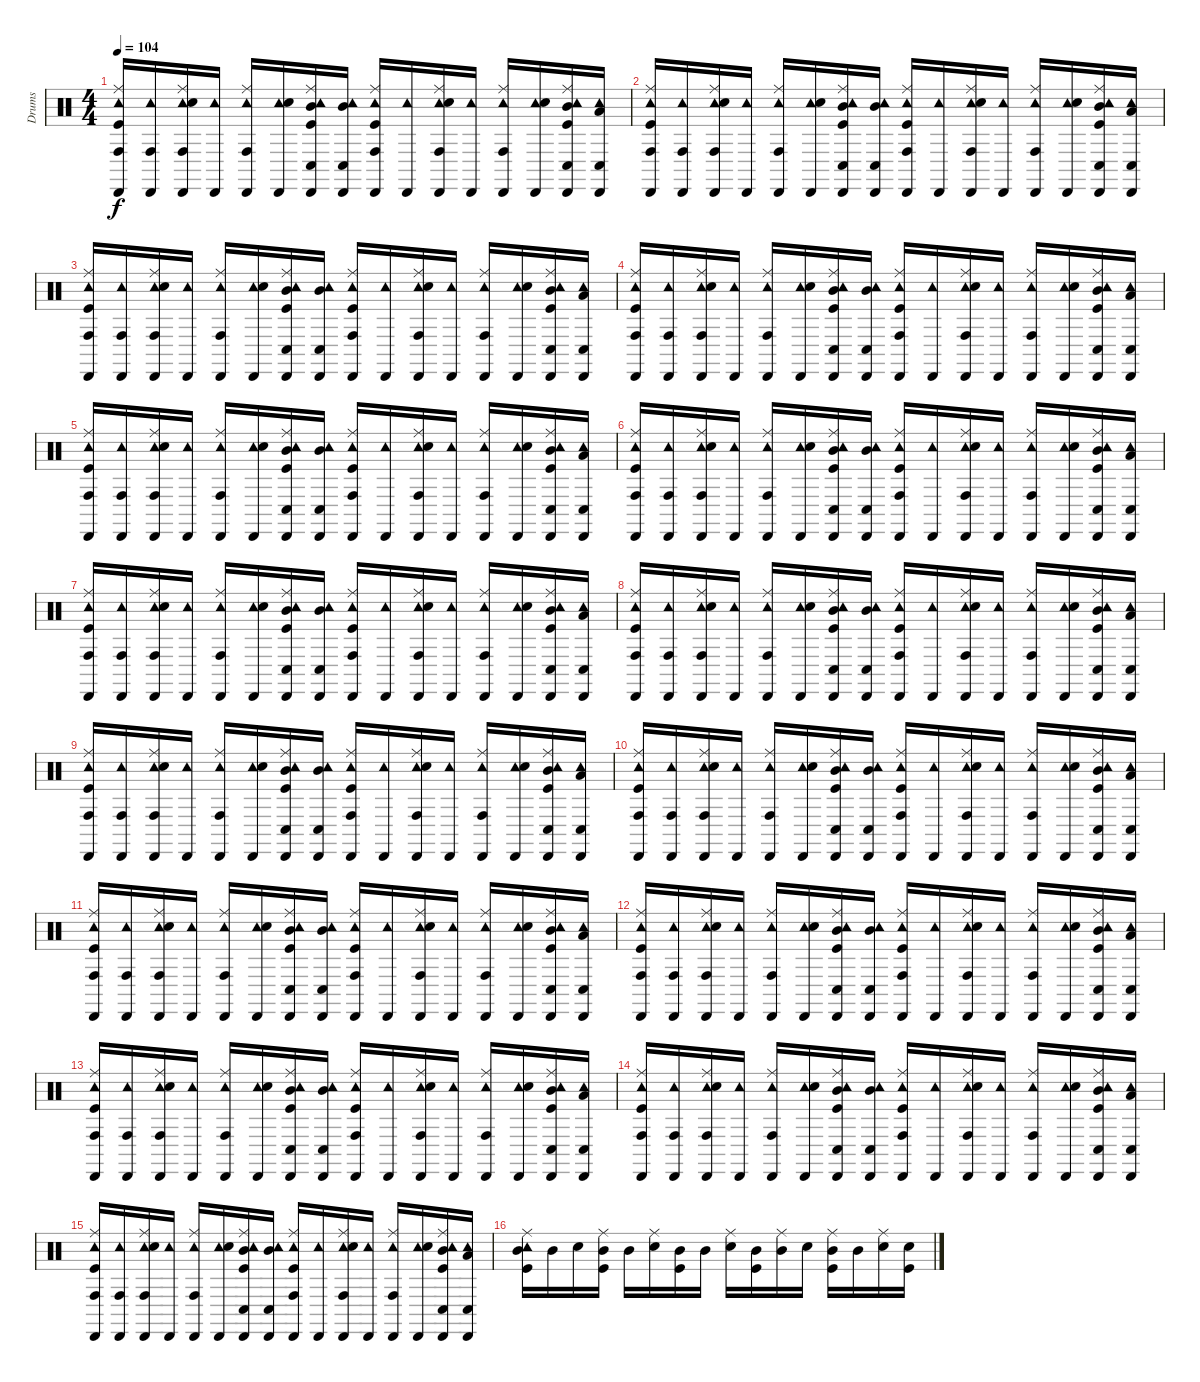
\track ("Drums" "Drums") {instrument percussion}
\staff {score}
\articulation defaults
\ts (4 4)
\tempo 104
\clef neutral
\ks c
("Cabasa (hit)" "Conga high (hit)" "Tambourine (hit)" "Ride (middle)" "Kick (hit)").16{dy f} ("Cabasa (hit)" "Conga high (hit)" "Tambourine (hit)").16 ("Cabasa (hit)" "Conga high (hit)" "Tambourine (hit)" "Ride (middle)" "Electric Snare (hit)").16 ("Cabasa (hit)" "Tambourine (hit)").16 ("Cabasa (hit)" "Conga high (hit)" "Tambourine (hit)" "Ride (middle)").16 ("Cabasa (hit)" "Tambourine (hit)" "Electric Snare (hit)").16 ("Cabasa (hit)" "Conga low (hit)" "Tambourine (hit)" "Ride (middle)" "Mid Tom (hit)" "Kick (hit)").16 ("Cabasa (hit)" "Conga low (hit)" "Tambourine (hit)" "Mid Tom (hit)").16 ("Cabasa (hit)" "Conga high (hit)" "Tambourine (hit)" "Ride (middle)" "Kick (hit)").16 ("Cabasa (hit)" "Tambourine (hit)").16 ("Cabasa (hit)" "Conga high (hit)" "Tambourine (hit)" "Ride (middle)" "Electric Snare (hit)").16 ("Cabasa (hit)" "Tambourine (hit)").16 ("Cabasa (hit)" "Conga high (hit)" "Tambourine (hit)" "Ride (middle)").16 ("Cabasa (hit)" "Tambourine (hit)" "Electric Snare (hit)").16 ("Cabasa (hit)" "Conga low (hit)" "Tambourine (hit)" "Ride (middle)" "Mid Tom (hit)" "Kick (hit)").16 ("Cabasa (hit)" "Conga low (hit)" "Tambourine (hit)" "Low Tom (hit)").16 |
("Cabasa (hit)" "Conga high (hit)" "Tambourine (hit)" "Ride (middle)" "Kick (hit)").16 ("Cabasa (hit)" "Conga high (hit)" "Tambourine (hit)").16 ("Cabasa (hit)" "Conga high (hit)" "Tambourine (hit)" "Ride (middle)" "Electric Snare (hit)").16 ("Cabasa (hit)" "Tambourine (hit)").16 ("Cabasa (hit)" "Conga high (hit)" "Tambourine (hit)" "Ride (middle)").16 ("Cabasa (hit)" "Tambourine (hit)" "Electric Snare (hit)").16 ("Cabasa (hit)" "Conga low (hit)" "Tambourine (hit)" "Ride (middle)" "Mid Tom (hit)" "Kick (hit)").16 ("Cabasa (hit)" "Conga low (hit)" "Tambourine (hit)" "Mid Tom (hit)").16 ("Cabasa (hit)" "Conga high (hit)" "Tambourine (hit)" "Ride (middle)" "Kick (hit)").16 ("Cabasa (hit)" "Tambourine (hit)").16 ("Cabasa (hit)" "Conga high (hit)" "Tambourine (hit)" "Ride (middle)" "Electric Snare (hit)").16 ("Cabasa (hit)" "Tambourine (hit)").16 ("Cabasa (hit)" "Conga high (hit)" "Tambourine (hit)" "Ride (middle)").16 ("Cabasa (hit)" "Tambourine (hit)" "Electric Snare (hit)").16 ("Cabasa (hit)" "Conga low (hit)" "Tambourine (hit)" "Ride (middle)" "Mid Tom (hit)" "Kick (hit)").16 ("Cabasa (hit)" "Conga low (hit)" "Tambourine (hit)" "Low Tom (hit)").16 |
("Cabasa (hit)" "Conga high (hit)" "Tambourine (hit)" "Ride (middle)" "Kick (hit)").16 ("Cabasa (hit)" "Conga high (hit)" "Tambourine (hit)").16 ("Cabasa (hit)" "Conga high (hit)" "Tambourine (hit)" "Ride (middle)" "Electric Snare (hit)").16 ("Cabasa (hit)" "Tambourine (hit)").16 ("Cabasa (hit)" "Conga high (hit)" "Tambourine (hit)" "Ride (middle)").16 ("Cabasa (hit)" "Tambourine (hit)" "Electric Snare (hit)").16 ("Cabasa (hit)" "Conga low (hit)" "Tambourine (hit)" "Ride (middle)" "Mid Tom (hit)" "Kick (hit)").16 ("Cabasa (hit)" "Conga low (hit)" "Tambourine (hit)" "Mid Tom (hit)").16 ("Cabasa (hit)" "Conga high (hit)" "Tambourine (hit)" "Ride (middle)" "Kick (hit)").16 ("Cabasa (hit)" "Tambourine (hit)").16 ("Cabasa (hit)" "Conga high (hit)" "Tambourine (hit)" "Ride (middle)" "Electric Snare (hit)").16 ("Cabasa (hit)" "Tambourine (hit)").16 ("Cabasa (hit)" "Conga high (hit)" "Tambourine (hit)" "Ride (middle)").16 ("Cabasa (hit)" "Tambourine (hit)" "Electric Snare (hit)").16 ("Cabasa (hit)" "Conga low (hit)" "Tambourine (hit)" "Ride (middle)" "Mid Tom (hit)" "Kick (hit)").16 ("Cabasa (hit)" "Conga low (hit)" "Tambourine (hit)" "Low Tom (hit)").16 |
("Cabasa (hit)" "Conga high (hit)" "Tambourine (hit)" "Ride (middle)" "Kick (hit)").16 ("Cabasa (hit)" "Conga high (hit)" "Tambourine (hit)").16 ("Cabasa (hit)" "Conga high (hit)" "Tambourine (hit)" "Ride (middle)" "Electric Snare (hit)").16 ("Cabasa (hit)" "Tambourine (hit)").16 ("Cabasa (hit)" "Conga high (hit)" "Tambourine (hit)" "Ride (middle)").16 ("Cabasa (hit)" "Tambourine (hit)" "Electric Snare (hit)").16 ("Cabasa (hit)" "Conga low (hit)" "Tambourine (hit)" "Ride (middle)" "Mid Tom (hit)" "Kick (hit)").16 ("Cabasa (hit)" "Conga low (hit)" "Tambourine (hit)" "Mid Tom (hit)").16 ("Cabasa (hit)" "Conga high (hit)" "Tambourine (hit)" "Ride (middle)" "Kick (hit)").16 ("Cabasa (hit)" "Tambourine (hit)").16 ("Cabasa (hit)" "Conga high (hit)" "Tambourine (hit)" "Ride (middle)" "Electric Snare (hit)").16 ("Cabasa (hit)" "Tambourine (hit)").16 ("Cabasa (hit)" "Conga high (hit)" "Tambourine (hit)" "Ride (middle)").16 ("Cabasa (hit)" "Tambourine (hit)" "Electric Snare (hit)").16 ("Cabasa (hit)" "Conga low (hit)" "Tambourine (hit)" "Ride (middle)" "Mid Tom (hit)" "Kick (hit)").16 ("Cabasa (hit)" "Conga low (hit)" "Tambourine (hit)" "Low Tom (hit)").16 |
("Cabasa (hit)" "Conga high (hit)" "Tambourine (hit)" "Ride (middle)" "Kick (hit)").16 ("Cabasa (hit)" "Conga high (hit)" "Tambourine (hit)").16 ("Cabasa (hit)" "Conga high (hit)" "Tambourine (hit)" "Ride (middle)" "Electric Snare (hit)").16 ("Cabasa (hit)" "Tambourine (hit)").16 ("Cabasa (hit)" "Conga high (hit)" "Tambourine (hit)" "Ride (middle)").16 ("Cabasa (hit)" "Tambourine (hit)" "Electric Snare (hit)").16 ("Cabasa (hit)" "Conga low (hit)" "Tambourine (hit)" "Ride (middle)" "Mid Tom (hit)" "Kick (hit)").16 ("Cabasa (hit)" "Conga low (hit)" "Tambourine (hit)" "Mid Tom (hit)").16 ("Cabasa (hit)" "Conga high (hit)" "Tambourine (hit)" "Ride (middle)" "Kick (hit)").16 ("Cabasa (hit)" "Tambourine (hit)").16 ("Cabasa (hit)" "Conga high (hit)" "Tambourine (hit)" "Ride (middle)" "Electric Snare (hit)").16 ("Cabasa (hit)" "Tambourine (hit)").16 ("Cabasa (hit)" "Conga high (hit)" "Tambourine (hit)" "Ride (middle)").16 ("Cabasa (hit)" "Tambourine (hit)" "Electric Snare (hit)").16 ("Cabasa (hit)" "Conga low (hit)" "Tambourine (hit)" "Ride (middle)" "Mid Tom (hit)" "Kick (hit)").16 ("Cabasa (hit)" "Conga low (hit)" "Tambourine (hit)" "Low Tom (hit)").16 |
("Cabasa (hit)" "Conga high (hit)" "Tambourine (hit)" "Ride (middle)" "Kick (hit)").16 ("Cabasa (hit)" "Conga high (hit)" "Tambourine (hit)").16 ("Cabasa (hit)" "Conga high (hit)" "Tambourine (hit)" "Ride (middle)" "Electric Snare (hit)").16 ("Cabasa (hit)" "Tambourine (hit)").16 ("Cabasa (hit)" "Conga high (hit)" "Tambourine (hit)" "Ride (middle)").16 ("Cabasa (hit)" "Tambourine (hit)" "Electric Snare (hit)").16 ("Cabasa (hit)" "Conga low (hit)" "Tambourine (hit)" "Ride (middle)" "Mid Tom (hit)" "Kick (hit)").16 ("Cabasa (hit)" "Conga low (hit)" "Tambourine (hit)" "Mid Tom (hit)").16 ("Cabasa (hit)" "Conga high (hit)" "Tambourine (hit)" "Ride (middle)" "Kick (hit)").16 ("Cabasa (hit)" "Tambourine (hit)").16 ("Cabasa (hit)" "Conga high (hit)" "Tambourine (hit)" "Ride (middle)" "Electric Snare (hit)").16 ("Cabasa (hit)" "Tambourine (hit)").16 ("Cabasa (hit)" "Conga high (hit)" "Tambourine (hit)" "Ride (middle)").16 ("Cabasa (hit)" "Tambourine (hit)" "Electric Snare (hit)").16 ("Cabasa (hit)" "Conga low (hit)" "Tambourine (hit)" "Ride (middle)" "Mid Tom (hit)" "Kick (hit)").16 ("Cabasa (hit)" "Conga low (hit)" "Tambourine (hit)" "Low Tom (hit)").16 |
("Cabasa (hit)" "Conga high (hit)" "Tambourine (hit)" "Ride (middle)" "Kick (hit)").16 ("Cabasa (hit)" "Conga high (hit)" "Tambourine (hit)").16 ("Cabasa (hit)" "Conga high (hit)" "Tambourine (hit)" "Ride (middle)" "Electric Snare (hit)").16 ("Cabasa (hit)" "Tambourine (hit)").16 ("Cabasa (hit)" "Conga high (hit)" "Tambourine (hit)" "Ride (middle)").16 ("Cabasa (hit)" "Tambourine (hit)" "Electric Snare (hit)").16 ("Cabasa (hit)" "Conga low (hit)" "Tambourine (hit)" "Ride (middle)" "Mid Tom (hit)" "Kick (hit)").16 ("Cabasa (hit)" "Conga low (hit)" "Tambourine (hit)" "Mid Tom (hit)").16 ("Cabasa (hit)" "Conga high (hit)" "Tambourine (hit)" "Ride (middle)" "Kick (hit)").16 ("Cabasa (hit)" "Tambourine (hit)").16 ("Cabasa (hit)" "Conga high (hit)" "Tambourine (hit)" "Ride (middle)" "Electric Snare (hit)").16 ("Cabasa (hit)" "Tambourine (hit)").16 ("Cabasa (hit)" "Conga high (hit)" "Tambourine (hit)" "Ride (middle)").16 ("Cabasa (hit)" "Tambourine (hit)" "Electric Snare (hit)").16 ("Cabasa (hit)" "Conga low (hit)" "Tambourine (hit)" "Ride (middle)" "Mid Tom (hit)" "Kick (hit)").16 ("Cabasa (hit)" "Conga low (hit)" "Tambourine (hit)" "Low Tom (hit)").16 |
("Cabasa (hit)" "Conga high (hit)" "Tambourine (hit)" "Ride (middle)" "Kick (hit)").16 ("Cabasa (hit)" "Conga high (hit)" "Tambourine (hit)").16 ("Cabasa (hit)" "Conga high (hit)" "Tambourine (hit)" "Ride (middle)" "Electric Snare (hit)").16 ("Cabasa (hit)" "Tambourine (hit)").16 ("Cabasa (hit)" "Conga high (hit)" "Tambourine (hit)" "Ride (middle)").16 ("Cabasa (hit)" "Tambourine (hit)" "Electric Snare (hit)").16 ("Cabasa (hit)" "Conga low (hit)" "Tambourine (hit)" "Ride (middle)" "Mid Tom (hit)" "Kick (hit)").16 ("Cabasa (hit)" "Conga low (hit)" "Tambourine (hit)" "Mid Tom (hit)").16 ("Cabasa (hit)" "Conga high (hit)" "Tambourine (hit)" "Ride (middle)" "Kick (hit)").16 ("Cabasa (hit)" "Tambourine (hit)").16 ("Cabasa (hit)" "Conga high (hit)" "Tambourine (hit)" "Ride (middle)" "Electric Snare (hit)").16 ("Cabasa (hit)" "Tambourine (hit)").16 ("Cabasa (hit)" "Conga high (hit)" "Tambourine (hit)" "Ride (middle)").16 ("Cabasa (hit)" "Tambourine (hit)" "Electric Snare (hit)").16 ("Cabasa (hit)" "Conga low (hit)" "Tambourine (hit)" "Ride (middle)" "Mid Tom (hit)" "Kick (hit)").16 ("Cabasa (hit)" "Conga low (hit)" "Tambourine (hit)" "Low Tom (hit)").16 |
("Cabasa (hit)" "Conga high (hit)" "Tambourine (hit)" "Ride (middle)" "Kick (hit)").16 ("Cabasa (hit)" "Conga high (hit)" "Tambourine (hit)").16 ("Cabasa (hit)" "Conga high (hit)" "Tambourine (hit)" "Ride (middle)" "Electric Snare (hit)").16 ("Cabasa (hit)" "Tambourine (hit)").16 ("Cabasa (hit)" "Conga high (hit)" "Tambourine (hit)" "Ride (middle)").16 ("Cabasa (hit)" "Tambourine (hit)" "Electric Snare (hit)").16 ("Cabasa (hit)" "Conga low (hit)" "Tambourine (hit)" "Ride (middle)" "Mid Tom (hit)" "Kick (hit)").16 ("Cabasa (hit)" "Conga low (hit)" "Tambourine (hit)" "Mid Tom (hit)").16 ("Cabasa (hit)" "Conga high (hit)" "Tambourine (hit)" "Ride (middle)" "Kick (hit)").16 ("Cabasa (hit)" "Tambourine (hit)").16 ("Cabasa (hit)" "Conga high (hit)" "Tambourine (hit)" "Ride (middle)" "Electric Snare (hit)").16 ("Cabasa (hit)" "Tambourine (hit)").16 ("Cabasa (hit)" "Conga high (hit)" "Tambourine (hit)" "Ride (middle)").16 ("Cabasa (hit)" "Tambourine (hit)" "Electric Snare (hit)").16 ("Cabasa (hit)" "Conga low (hit)" "Tambourine (hit)" "Ride (middle)" "Mid Tom (hit)" "Kick (hit)").16 ("Cabasa (hit)" "Conga low (hit)" "Tambourine (hit)" "Low Tom (hit)").16 |
("Cabasa (hit)" "Conga high (hit)" "Tambourine (hit)" "Ride (middle)" "Kick (hit)").16 ("Cabasa (hit)" "Conga high (hit)" "Tambourine (hit)").16 ("Cabasa (hit)" "Conga high (hit)" "Tambourine (hit)" "Ride (middle)" "Electric Snare (hit)").16 ("Cabasa (hit)" "Tambourine (hit)").16 ("Cabasa (hit)" "Conga high (hit)" "Tambourine (hit)" "Ride (middle)").16 ("Cabasa (hit)" "Tambourine (hit)" "Electric Snare (hit)").16 ("Cabasa (hit)" "Conga low (hit)" "Tambourine (hit)" "Ride (middle)" "Mid Tom (hit)" "Kick (hit)").16 ("Cabasa (hit)" "Conga low (hit)" "Tambourine (hit)" "Mid Tom (hit)").16 ("Cabasa (hit)" "Conga high (hit)" "Tambourine (hit)" "Ride (middle)" "Kick (hit)").16 ("Cabasa (hit)" "Tambourine (hit)").16 ("Cabasa (hit)" "Conga high (hit)" "Tambourine (hit)" "Ride (middle)" "Electric Snare (hit)").16 ("Cabasa (hit)" "Tambourine (hit)").16 ("Cabasa (hit)" "Conga high (hit)" "Tambourine (hit)" "Ride (middle)").16 ("Cabasa (hit)" "Tambourine (hit)" "Electric Snare (hit)").16 ("Cabasa (hit)" "Conga low (hit)" "Tambourine (hit)" "Ride (middle)" "Mid Tom (hit)" "Kick (hit)").16 ("Cabasa (hit)" "Conga low (hit)" "Tambourine (hit)" "Low Tom (hit)").16 |
("Cabasa (hit)" "Conga high (hit)" "Tambourine (hit)" "Ride (middle)" "Kick (hit)").16 ("Cabasa (hit)" "Conga high (hit)" "Tambourine (hit)").16 ("Cabasa (hit)" "Conga high (hit)" "Tambourine (hit)" "Ride (middle)" "Electric Snare (hit)").16 ("Cabasa (hit)" "Tambourine (hit)").16 ("Cabasa (hit)" "Conga high (hit)" "Tambourine (hit)" "Ride (middle)").16 ("Cabasa (hit)" "Tambourine (hit)" "Electric Snare (hit)").16 ("Cabasa (hit)" "Conga low (hit)" "Tambourine (hit)" "Ride (middle)" "Mid Tom (hit)" "Kick (hit)").16 ("Cabasa (hit)" "Conga low (hit)" "Tambourine (hit)" "Mid Tom (hit)").16 ("Cabasa (hit)" "Conga high (hit)" "Tambourine (hit)" "Ride (middle)" "Kick (hit)").16 ("Cabasa (hit)" "Tambourine (hit)").16 ("Cabasa (hit)" "Conga high (hit)" "Tambourine (hit)" "Ride (middle)" "Electric Snare (hit)").16 ("Cabasa (hit)" "Tambourine (hit)").16 ("Cabasa (hit)" "Conga high (hit)" "Tambourine (hit)" "Ride (middle)").16 ("Cabasa (hit)" "Tambourine (hit)" "Electric Snare (hit)").16 ("Cabasa (hit)" "Conga low (hit)" "Tambourine (hit)" "Ride (middle)" "Mid Tom (hit)" "Kick (hit)").16 ("Cabasa (hit)" "Conga low (hit)" "Tambourine (hit)" "Low Tom (hit)").16 |
("Cabasa (hit)" "Conga high (hit)" "Tambourine (hit)" "Ride (middle)" "Kick (hit)").16 ("Cabasa (hit)" "Conga high (hit)" "Tambourine (hit)").16 ("Cabasa (hit)" "Conga high (hit)" "Tambourine (hit)" "Ride (middle)" "Electric Snare (hit)").16 ("Cabasa (hit)" "Tambourine (hit)").16 ("Cabasa (hit)" "Conga high (hit)" "Tambourine (hit)" "Ride (middle)").16 ("Cabasa (hit)" "Tambourine (hit)" "Electric Snare (hit)").16 ("Cabasa (hit)" "Conga low (hit)" "Tambourine (hit)" "Ride (middle)" "Mid Tom (hit)" "Kick (hit)").16 ("Cabasa (hit)" "Conga low (hit)" "Tambourine (hit)" "Mid Tom (hit)").16 ("Cabasa (hit)" "Conga high (hit)" "Tambourine (hit)" "Ride (middle)" "Kick (hit)").16 ("Cabasa (hit)" "Tambourine (hit)").16 ("Cabasa (hit)" "Conga high (hit)" "Tambourine (hit)" "Ride (middle)" "Electric Snare (hit)").16 ("Cabasa (hit)" "Tambourine (hit)").16 ("Cabasa (hit)" "Conga high (hit)" "Tambourine (hit)" "Ride (middle)").16 ("Cabasa (hit)" "Tambourine (hit)" "Electric Snare (hit)").16 ("Cabasa (hit)" "Conga low (hit)" "Tambourine (hit)" "Ride (middle)" "Mid Tom (hit)" "Kick (hit)").16 ("Cabasa (hit)" "Conga low (hit)" "Tambourine (hit)" "Low Tom (hit)").16 |
("Cabasa (hit)" "Conga high (hit)" "Tambourine (hit)" "Ride (middle)" "Kick (hit)").16 ("Cabasa (hit)" "Conga high (hit)" "Tambourine (hit)").16 ("Cabasa (hit)" "Conga high (hit)" "Tambourine (hit)" "Ride (middle)" "Electric Snare (hit)").16 ("Cabasa (hit)" "Tambourine (hit)").16 ("Cabasa (hit)" "Conga high (hit)" "Tambourine (hit)" "Ride (middle)").16 ("Cabasa (hit)" "Tambourine (hit)" "Electric Snare (hit)").16 ("Cabasa (hit)" "Conga low (hit)" "Tambourine (hit)" "Ride (middle)" "Mid Tom (hit)" "Kick (hit)").16 ("Cabasa (hit)" "Conga low (hit)" "Tambourine (hit)" "Mid Tom (hit)").16 ("Cabasa (hit)" "Conga high (hit)" "Tambourine (hit)" "Ride (middle)" "Kick (hit)").16 ("Cabasa (hit)" "Tambourine (hit)").16 ("Cabasa (hit)" "Conga high (hit)" "Tambourine (hit)" "Ride (middle)" "Electric Snare (hit)").16 ("Cabasa (hit)" "Tambourine (hit)").16 ("Cabasa (hit)" "Conga high (hit)" "Tambourine (hit)" "Ride (middle)").16 ("Cabasa (hit)" "Tambourine (hit)" "Electric Snare (hit)").16 ("Cabasa (hit)" "Conga low (hit)" "Tambourine (hit)" "Ride (middle)" "Mid Tom (hit)" "Kick (hit)").16 ("Cabasa (hit)" "Conga low (hit)" "Tambourine (hit)" "Low Tom (hit)").16 |
("Cabasa (hit)" "Conga high (hit)" "Tambourine (hit)" "Ride (middle)" "Kick (hit)").16 ("Cabasa (hit)" "Conga high (hit)" "Tambourine (hit)").16 ("Cabasa (hit)" "Conga high (hit)" "Tambourine (hit)" "Ride (middle)" "Electric Snare (hit)").16 ("Cabasa (hit)" "Tambourine (hit)").16 ("Cabasa (hit)" "Conga high (hit)" "Tambourine (hit)" "Ride (middle)").16 ("Cabasa (hit)" "Tambourine (hit)" "Electric Snare (hit)").16 ("Cabasa (hit)" "Conga low (hit)" "Tambourine (hit)" "Ride (middle)" "Mid Tom (hit)" "Kick (hit)").16 ("Cabasa (hit)" "Conga low (hit)" "Tambourine (hit)" "Mid Tom (hit)").16 ("Cabasa (hit)" "Conga high (hit)" "Tambourine (hit)" "Ride (middle)" "Kick (hit)").16 ("Cabasa (hit)" "Tambourine (hit)").16 ("Cabasa (hit)" "Conga high (hit)" "Tambourine (hit)" "Ride (middle)" "Electric Snare (hit)").16 ("Cabasa (hit)" "Tambourine (hit)").16 ("Cabasa (hit)" "Conga high (hit)" "Tambourine (hit)" "Ride (middle)").16 ("Cabasa (hit)" "Tambourine (hit)" "Electric Snare (hit)").16 ("Cabasa (hit)" "Conga low (hit)" "Tambourine (hit)" "Ride (middle)" "Mid Tom (hit)" "Kick (hit)").16 ("Cabasa (hit)" "Conga low (hit)" "Tambourine (hit)" "Low Tom (hit)").16 |
("Cabasa (hit)" "Conga high (hit)" "Tambourine (hit)" "Ride (middle)" "Kick (hit)").16 ("Cabasa (hit)" "Conga high (hit)" "Tambourine (hit)").16 ("Cabasa (hit)" "Conga high (hit)" "Tambourine (hit)" "Ride (middle)" "Electric Snare (hit)").16 ("Cabasa (hit)" "Tambourine (hit)").16 ("Cabasa (hit)" "Conga high (hit)" "Tambourine (hit)" "Ride (middle)").16 ("Cabasa (hit)" "Tambourine (hit)" "Electric Snare (hit)").16 ("Cabasa (hit)" "Conga low (hit)" "Tambourine (hit)" "Ride (middle)" "Mid Tom (hit)" "Kick (hit)").16 ("Cabasa (hit)" "Conga low (hit)" "Tambourine (hit)" "Mid Tom (hit)").16 ("Cabasa (hit)" "Conga high (hit)" "Tambourine (hit)" "Ride (middle)" "Kick (hit)").16 ("Cabasa (hit)" "Tambourine (hit)").16 ("Cabasa (hit)" "Conga high (hit)" "Tambourine (hit)" "Ride (middle)" "Electric Snare (hit)").16 ("Cabasa (hit)" "Tambourine (hit)").16 ("Cabasa (hit)" "Conga high (hit)" "Tambourine (hit)" "Ride (middle)").16 ("Cabasa (hit)" "Tambourine (hit)" "Electric Snare (hit)").16 ("Cabasa (hit)" "Conga low (hit)" "Tambourine (hit)" "Ride (middle)" "Mid Tom (hit)" "Kick (hit)").16 ("Cabasa (hit)" "Conga low (hit)" "Tambourine (hit)" "Low Tom (hit)").16 |
("Tambourine (hit)" "Ride (middle)" "Mid Tom (hit)" "Kick (hit)").16 "Mid Tom (hit)".16 "Electric Snare (hit)".16 ("Ride (middle)" "Mid Tom (hit)" "Kick (hit)").16 "Mid Tom (hit)".16 ("Ride (middle)" "Electric Snare (hit)").16 ("Mid Tom (hit)" "Kick (hit)").16 "Mid Tom (hit)".16 ("Ride (middle)" "Electric Snare (hit)").16 ("Mid Tom (hit)" "Kick (hit)").16 ("Ride (middle)" "Mid Tom (hit)").16 "Electric Snare (hit)".16 ("Ride (middle)" "Mid Tom (hit)" "Kick (hit)").16 "Mid Tom (hit)".16 ("Ride (middle)" "Electric Snare (hit)").16 ("Electric Snare (hit)" "Kick (hit)").16
